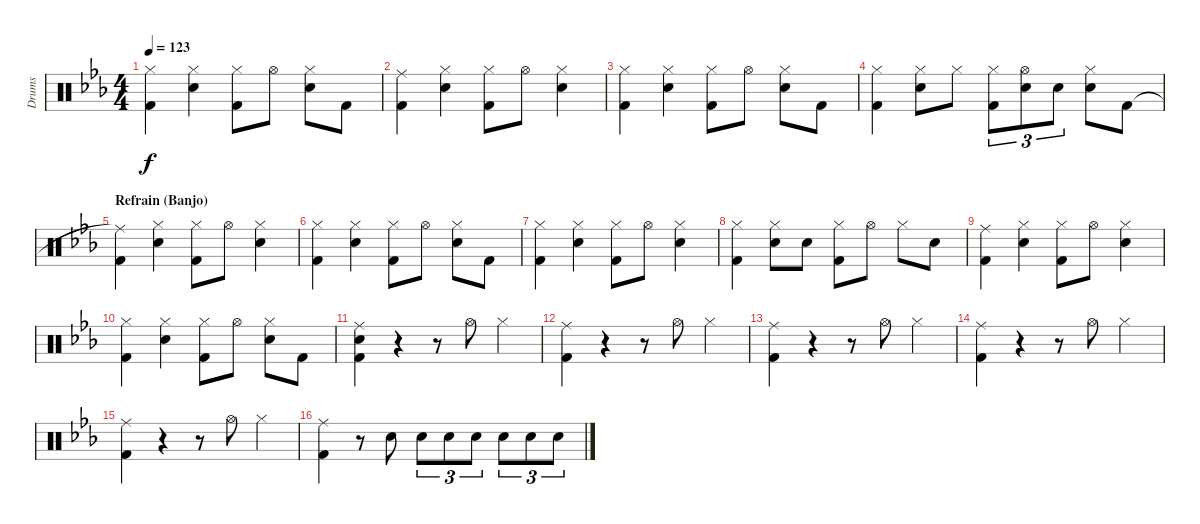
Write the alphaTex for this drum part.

\track ("Drums" "Drums") {instrument percussion}
\staff {score}
\articulation defaults
\ts (4 4)
\tempo 123
\clef neutral
\ks cminor
("Hi-Hat (closed)" "Kick (hit) 2").4{dy f} ("Hi-Hat (closed)" "Electric Snare (hit)").4 ("Hi-Hat (closed)" "Kick (hit) 2").8 "Hi-Hat (open)".8 ("Hi-Hat (closed)" "Electric Snare (hit)").8 "Kick (hit) 2".8 |
("Ride (middle)" "Kick (hit) 2").4 ("Hi-Hat (closed)" "Electric Snare (hit)").4 ("Hi-Hat (closed)" "Kick (hit) 2").8 "Hi-Hat (open)".8 ("Hi-Hat (closed)" "Electric Snare (hit)").4 |
("Hi-Hat (closed)" "Kick (hit) 2").4 ("Hi-Hat (closed)" "Electric Snare (hit)").4 ("Hi-Hat (closed)" "Kick (hit) 2").8 "Hi-Hat (open)".8 ("Hi-Hat (closed)" "Electric Snare (hit)").8 "Kick (hit) 2".8 |
("Hi-Hat (closed)" "Kick (hit) 2").4 ("Hi-Hat (closed)" "Electric Snare (hit)").8 "Hi-Hat (closed)".8 ("Hi-Hat (closed)" "Kick (hit) 2").8{tu (3 2)} ("Hi-Hat (open)" "Electric Snare (hit)").8{tu (3 2)} "Electric Snare (hit)".8{tu (3 2)} ("Hi-Hat (closed)" "Electric Snare (hit)").8 "Kick (hit) 2".8 |
\section ("" "Refrain (Banjo)")
("Ride (middle)"{t} "Kick (hit) 2").4 ("Hi-Hat (closed)" "Electric Snare (hit)").4 ("Hi-Hat (closed)" "Kick (hit) 2").8 "Hi-Hat (open)".8 ("Hi-Hat (closed)" "Electric Snare (hit)").4 |
("Hi-Hat (closed)" "Kick (hit) 2").4 ("Hi-Hat (closed)" "Electric Snare (hit)").4 ("Hi-Hat (closed)" "Kick (hit) 2").8 "Hi-Hat (open)".8 ("Hi-Hat (closed)" "Electric Snare (hit)").8 "Kick (hit) 2".8 |
("Hi-Hat (closed)" "Kick (hit) 2").4 ("Hi-Hat (closed)" "Electric Snare (hit)").4 ("Hi-Hat (closed)" "Kick (hit) 2").8 "Hi-Hat (open)".8 ("Hi-Hat (closed)" "Electric Snare (hit)").4 |
("Hi-Hat (closed)" "Kick (hit) 2").4 ("Hi-Hat (closed)" "Electric Snare (hit)").8 "Electric Snare (hit)".8 ("Hi-Hat (closed)" "Kick (hit) 2").8 "Hi-Hat (open)".8 "Hi-Hat (closed)".8 "Electric Snare (hit)".8 |
("Ride (middle)" "Kick (hit) 2").4 ("Hi-Hat (closed)" "Electric Snare (hit)").4 ("Hi-Hat (closed)" "Kick (hit) 2").8 "Hi-Hat (open)".8 ("Hi-Hat (closed)" "Electric Snare (hit)").4 |
("Hi-Hat (closed)" "Kick (hit) 2").4 ("Hi-Hat (closed)" "Electric Snare (hit)").4 ("Hi-Hat (closed)" "Kick (hit) 2").8 "Hi-Hat (open)".8 ("Hi-Hat (closed)" "Electric Snare (hit)").8 "Kick (hit) 2".8 |
("Ride (middle)" "Electric Snare (hit)" "Kick (hit) 2").4 r.4 r.8 "Hi-Hat (open)".8 "Hi-Hat (closed)".4 |
("Ride (middle)" "Kick (hit) 2").4 r.4 r.8 "Hi-Hat (open)".8 "Hi-Hat (closed)".4 |
("Ride (middle)" "Kick (hit) 2").4 r.4 r.8 "Hi-Hat (open)".8 "Hi-Hat (closed)".4 |
("Ride (middle)" "Kick (hit) 2").4 r.4 r.8 "Hi-Hat (open)".8 "Hi-Hat (closed)".4 |
("Ride (middle)" "Kick (hit) 2").4 r.4 r.8 "Hi-Hat (open)".8 "Hi-Hat (closed)".4 |
("Ride (middle)" "Kick (hit) 2").4 r.8 "Electric Snare (hit)".8 "Electric Snare (hit)".8{tu (3 2)} "Electric Snare (hit)".8{tu (3 2)} "Electric Snare (hit)".8{tu (3 2)} "Electric Snare (hit)".8{tu (3 2)} "Electric Snare (hit)".8{tu (3 2)} "Electric Snare (hit)".8{tu (3 2)}
